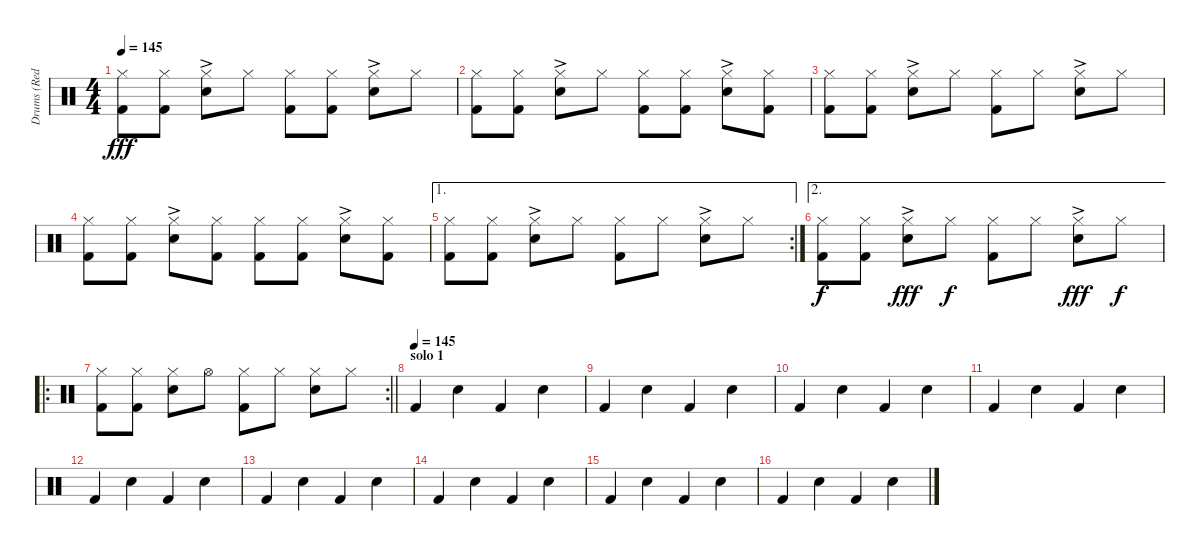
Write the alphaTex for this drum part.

\track ("Drums (Red)" "Drums (Red") {instrument percussion}
\staff {score}
\articulation defaults
\ts (4 4)
\tempo 145
\clef neutral
\ks c
("Hi-Hat (closed)" "Kick (hit) 2").8{dy fff} ("Hi-Hat (closed)" "Kick (hit) 2").8 ("Hi-Hat (closed)" "Electric Snare (hit)"{ac}).8 "Hi-Hat (closed)".8 ("Hi-Hat (closed)" "Kick (hit) 2").8 ("Hi-Hat (closed)" "Kick (hit) 2").8 ("Hi-Hat (closed)" "Electric Snare (hit)"{ac}).8 "Hi-Hat (closed)".8 |
("Hi-Hat (closed)" "Kick (hit) 2").8 ("Hi-Hat (closed)" "Kick (hit) 2").8 ("Hi-Hat (closed)" "Electric Snare (hit)"{ac}).8 "Hi-Hat (closed)".8 ("Hi-Hat (closed)" "Kick (hit) 2").8 ("Hi-Hat (closed)" "Kick (hit) 2").8 ("Hi-Hat (closed)" "Electric Snare (hit)"{ac}).8 ("Hi-Hat (closed)" "Kick (hit) 2").8 |
("Hi-Hat (closed)" "Kick (hit) 2").8 ("Hi-Hat (closed)" "Kick (hit) 2").8 ("Hi-Hat (closed)" "Electric Snare (hit)"{ac}).8 "Hi-Hat (closed)".8 ("Hi-Hat (closed)" "Kick (hit) 2").8 "Hi-Hat (closed)".8 ("Hi-Hat (closed)" "Electric Snare (hit)"{ac}).8 "Hi-Hat (closed)".8 |
("Hi-Hat (closed)" "Kick (hit) 2").8 ("Hi-Hat (closed)" "Kick (hit) 2").8 ("Hi-Hat (closed)" "Electric Snare (hit)"{ac}).8 ("Hi-Hat (closed)" "Kick (hit) 2").8 ("Hi-Hat (closed)" "Kick (hit) 2").8 ("Hi-Hat (closed)" "Kick (hit) 2").8 ("Hi-Hat (closed)" "Electric Snare (hit)"{ac}).8 ("Hi-Hat (closed)" "Kick (hit) 2").8 |
\ae 1
\rc 2
("Hi-Hat (closed)" "Kick (hit) 2").8 ("Hi-Hat (closed)" "Kick (hit) 2").8 ("Hi-Hat (closed)" "Electric Snare (hit)"{ac}).8 "Hi-Hat (closed)".8 ("Hi-Hat (closed)" "Kick (hit) 2").8 "Hi-Hat (closed)".8 ("Hi-Hat (closed)" "Electric Snare (hit)"{ac}).8 "Hi-Hat (closed)".8 |
\ae 2
("Hi-Hat (closed)" "Kick (hit) 2").8{dy f} ("Hi-Hat (closed)" "Kick (hit) 2").8 ("Hi-Hat (closed)" "Electric Snare (hit)"{ac}).8{dy fff} "Hi-Hat (closed)".8{dy f} ("Hi-Hat (closed)" "Kick (hit) 2").8 "Hi-Hat (closed)".8 ("Hi-Hat (closed)" "Electric Snare (hit)"{ac}).8{dy fff} "Hi-Hat (closed)".8{dy f} |
\ro
\rc 2
\barLineRight lightlight
("Hi-Hat (closed)" "Kick (hit) 2").8 ("Hi-Hat (closed)" "Kick (hit) 2").8 ("Hi-Hat (closed)" "Electric Snare (hit)").8 "Hi-Hat (open)".8 ("Hi-Hat (closed)" "Kick (hit) 2").8 "Hi-Hat (closed)".8 ("Hi-Hat (closed)" "Electric Snare (hit)").8 "Hi-Hat (closed)".8 |
\section ("" "solo 1")
\tempo (145)
"Kick (hit) 2".4 "Electric Snare (hit)".4 "Kick (hit) 2".4 "Electric Snare (hit)".4 |
"Kick (hit) 2".4 "Electric Snare (hit)".4 "Kick (hit) 2".4 "Electric Snare (hit)".4 |
"Kick (hit) 2".4 "Electric Snare (hit)".4 "Kick (hit) 2".4 "Electric Snare (hit)".4 |
"Kick (hit) 2".4 "Electric Snare (hit)".4 "Kick (hit) 2".4 "Electric Snare (hit)".4 |
"Kick (hit) 2".4 "Electric Snare (hit)".4 "Kick (hit) 2".4 "Electric Snare (hit)".4 |
"Kick (hit) 2".4 "Electric Snare (hit)".4 "Kick (hit) 2".4 "Electric Snare (hit)".4 |
"Kick (hit) 2".4 "Electric Snare (hit)".4 "Kick (hit) 2".4 "Electric Snare (hit)".4 |
"Kick (hit) 2".4 "Electric Snare (hit)".4 "Kick (hit) 2".4 "Electric Snare (hit)".4 |
"Kick (hit) 2".4 "Electric Snare (hit)".4 "Kick (hit) 2".4 "Electric Snare (hit)".4
